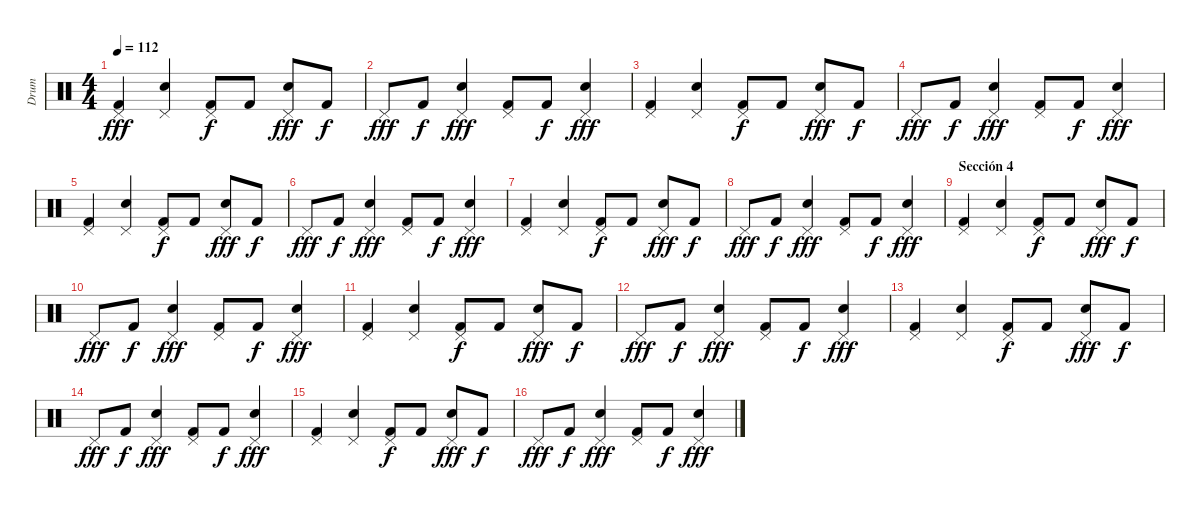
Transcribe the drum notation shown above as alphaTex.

\track ("Drum" "Drum") {instrument percussion}
\staff {score}
\articulation defaults
\ts (4 4)
\tempo 112
\clef neutral
\ks c
("Pedal Hi-Hat (hit)" "Kick (hit) 2").4{dy fff} ("Pedal Hi-Hat (hit)" "Electric Snare (hit)").4 ("Pedal Hi-Hat (hit)" "Kick (hit) 2").8{dy f} "Kick (hit) 2".8 ("Pedal Hi-Hat (hit)" "Electric Snare (hit)").8{dy fff} "Kick (hit) 2".8{dy f} |
"Pedal Hi-Hat (hit)".8{dy fff} "Kick (hit) 2".8{dy f} ("Pedal Hi-Hat (hit)" "Electric Snare (hit)").4{dy fff} ("Pedal Hi-Hat (hit)" "Kick (hit) 2").8 "Kick (hit) 2".8{dy f} ("Pedal Hi-Hat (hit)" "Electric Snare (hit)").4{dy fff} |
("Pedal Hi-Hat (hit)" "Kick (hit) 2").4 ("Pedal Hi-Hat (hit)" "Electric Snare (hit)").4 ("Pedal Hi-Hat (hit)" "Kick (hit) 2").8{dy f} "Kick (hit) 2".8 ("Pedal Hi-Hat (hit)" "Electric Snare (hit)").8{dy fff} "Kick (hit) 2".8{dy f} |
"Pedal Hi-Hat (hit)".8{dy fff} "Kick (hit) 2".8{dy f} ("Pedal Hi-Hat (hit)" "Electric Snare (hit)").4{dy fff} ("Pedal Hi-Hat (hit)" "Kick (hit) 2").8 "Kick (hit) 2".8{dy f} ("Pedal Hi-Hat (hit)" "Electric Snare (hit)").4{dy fff} |
("Pedal Hi-Hat (hit)" "Kick (hit) 2").4 ("Pedal Hi-Hat (hit)" "Electric Snare (hit)").4 ("Pedal Hi-Hat (hit)" "Kick (hit) 2").8{dy f} "Kick (hit) 2".8 ("Pedal Hi-Hat (hit)" "Electric Snare (hit)").8{dy fff} "Kick (hit) 2".8{dy f} |
"Pedal Hi-Hat (hit)".8{dy fff} "Kick (hit) 2".8{dy f} ("Pedal Hi-Hat (hit)" "Electric Snare (hit)").4{dy fff} ("Pedal Hi-Hat (hit)" "Kick (hit) 2").8 "Kick (hit) 2".8{dy f} ("Pedal Hi-Hat (hit)" "Electric Snare (hit)").4{dy fff} |
("Pedal Hi-Hat (hit)" "Kick (hit) 2").4 ("Pedal Hi-Hat (hit)" "Electric Snare (hit)").4 ("Pedal Hi-Hat (hit)" "Kick (hit) 2").8{dy f} "Kick (hit) 2".8 ("Pedal Hi-Hat (hit)" "Electric Snare (hit)").8{dy fff} "Kick (hit) 2".8{dy f} |
"Pedal Hi-Hat (hit)".8{dy fff} "Kick (hit) 2".8{dy f} ("Pedal Hi-Hat (hit)" "Electric Snare (hit)").4{dy fff} ("Pedal Hi-Hat (hit)" "Kick (hit) 2").8 "Kick (hit) 2".8{dy f} ("Pedal Hi-Hat (hit)" "Electric Snare (hit)").4{dy fff} |
\section ("" "Sección 4")
("Pedal Hi-Hat (hit)" "Kick (hit) 2").4 ("Pedal Hi-Hat (hit)" "Electric Snare (hit)").4 ("Pedal Hi-Hat (hit)" "Kick (hit) 2").8{dy f} "Kick (hit) 2".8 ("Pedal Hi-Hat (hit)" "Electric Snare (hit)").8{dy fff} "Kick (hit) 2".8{dy f} |
"Pedal Hi-Hat (hit)".8{dy fff} "Kick (hit) 2".8{dy f} ("Pedal Hi-Hat (hit)" "Electric Snare (hit)").4{dy fff} ("Pedal Hi-Hat (hit)" "Kick (hit) 2").8 "Kick (hit) 2".8{dy f} ("Pedal Hi-Hat (hit)" "Electric Snare (hit)").4{dy fff} |
("Pedal Hi-Hat (hit)" "Kick (hit) 2").4 ("Pedal Hi-Hat (hit)" "Electric Snare (hit)").4 ("Pedal Hi-Hat (hit)" "Kick (hit) 2").8{dy f} "Kick (hit) 2".8 ("Pedal Hi-Hat (hit)" "Electric Snare (hit)").8{dy fff} "Kick (hit) 2".8{dy f} |
"Pedal Hi-Hat (hit)".8{dy fff} "Kick (hit) 2".8{dy f} ("Pedal Hi-Hat (hit)" "Electric Snare (hit)").4{dy fff} ("Pedal Hi-Hat (hit)" "Kick (hit) 2").8 "Kick (hit) 2".8{dy f} ("Pedal Hi-Hat (hit)" "Electric Snare (hit)").4{dy fff} |
("Pedal Hi-Hat (hit)" "Kick (hit) 2").4 ("Pedal Hi-Hat (hit)" "Electric Snare (hit)").4 ("Pedal Hi-Hat (hit)" "Kick (hit) 2").8{dy f} "Kick (hit) 2".8 ("Pedal Hi-Hat (hit)" "Electric Snare (hit)").8{dy fff} "Kick (hit) 2".8{dy f} |
"Pedal Hi-Hat (hit)".8{dy fff} "Kick (hit) 2".8{dy f} ("Pedal Hi-Hat (hit)" "Electric Snare (hit)").4{dy fff} ("Pedal Hi-Hat (hit)" "Kick (hit) 2").8 "Kick (hit) 2".8{dy f} ("Pedal Hi-Hat (hit)" "Electric Snare (hit)").4{dy fff} |
("Pedal Hi-Hat (hit)" "Kick (hit) 2").4 ("Pedal Hi-Hat (hit)" "Electric Snare (hit)").4 ("Pedal Hi-Hat (hit)" "Kick (hit) 2").8{dy f} "Kick (hit) 2".8 ("Pedal Hi-Hat (hit)" "Electric Snare (hit)").8{dy fff} "Kick (hit) 2".8{dy f} |
"Pedal Hi-Hat (hit)".8{dy fff} "Kick (hit) 2".8{dy f} ("Pedal Hi-Hat (hit)" "Electric Snare (hit)").4{dy fff} ("Pedal Hi-Hat (hit)" "Kick (hit) 2").8 "Kick (hit) 2".8{dy f} ("Pedal Hi-Hat (hit)" "Electric Snare (hit)").4{dy fff}
